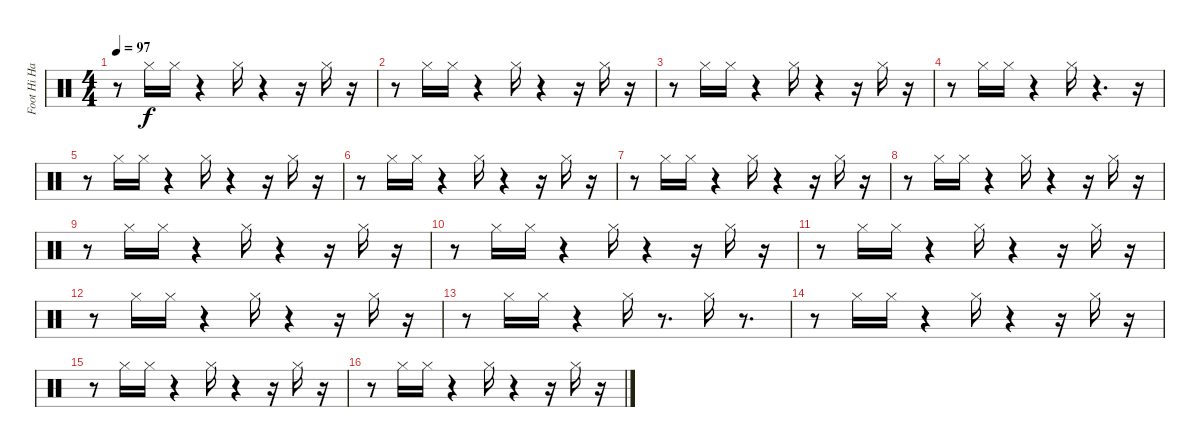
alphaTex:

\track ("Foot Hi Hat" "Foot Hi Ha") {instrument percussion}
\staff {score}
\articulation defaults
\ts (4 4)
\tempo 97
\clef neutral
\ks c
r.8{dy f} "Hi-Hat (closed)".16 "Hi-Hat (closed)".16 r.4 "Hi-Hat (closed)".16 r.4 r.16 "Hi-Hat (closed)".16 r.16 |
r.8 "Hi-Hat (closed)".16 "Hi-Hat (closed)".16 r.4 "Hi-Hat (closed)".16 r.4 r.16 "Hi-Hat (closed)".16 r.16 |
r.8 "Hi-Hat (closed)".16 "Hi-Hat (closed)".16 r.4 "Hi-Hat (closed)".16 r.4 r.16 "Hi-Hat (closed)".16 r.16 |
r.8 "Hi-Hat (closed)".16 "Hi-Hat (closed)".16 r.4 "Hi-Hat (closed)".16 r.4{d} r.16 |
r.8 "Hi-Hat (closed)".16 "Hi-Hat (closed)".16 r.4 "Hi-Hat (closed)".16 r.4 r.16 "Hi-Hat (closed)".16 r.16 |
r.8 "Hi-Hat (closed)".16 "Hi-Hat (closed)".16 r.4 "Hi-Hat (closed)".16 r.4 r.16 "Hi-Hat (closed)".16 r.16 |
r.8 "Hi-Hat (closed)".16 "Hi-Hat (closed)".16 r.4 "Hi-Hat (closed)".16 r.4 r.16 "Hi-Hat (closed)".16 r.16 |
r.8 "Hi-Hat (closed)".16 "Hi-Hat (closed)".16 r.4 "Hi-Hat (closed)".16 r.4 r.16 "Hi-Hat (closed)".16 r.16 |
r.8 "Hi-Hat (closed)".16 "Hi-Hat (closed)".16 r.4 "Hi-Hat (closed)".16 r.4 r.16 "Hi-Hat (closed)".16 r.16 |
r.8 "Hi-Hat (closed)".16 "Hi-Hat (closed)".16 r.4 "Hi-Hat (closed)".16 r.4 r.16 "Hi-Hat (closed)".16 r.16 |
r.8 "Hi-Hat (closed)".16 "Hi-Hat (closed)".16 r.4 "Hi-Hat (closed)".16 r.4 r.16 "Hi-Hat (closed)".16 r.16 |
r.8 "Hi-Hat (closed)".16 "Hi-Hat (closed)".16 r.4 "Hi-Hat (closed)".16 r.4 r.16 "Hi-Hat (closed)".16 r.16 |
r.8 "Hi-Hat (closed)".16 "Hi-Hat (closed)".16 r.4 "Hi-Hat (closed)".16 r.8{d} "Hi-Hat (closed)".16 r.8{d} |
r.8 "Hi-Hat (closed)".16 "Hi-Hat (closed)".16 r.4 "Hi-Hat (closed)".16 r.4 r.16 "Hi-Hat (closed)".16 r.16 |
r.8 "Hi-Hat (closed)".16 "Hi-Hat (closed)".16 r.4 "Hi-Hat (closed)".16 r.4 r.16 "Hi-Hat (closed)".16 r.16 |
r.8 "Hi-Hat (closed)".16 "Hi-Hat (closed)".16 r.4 "Hi-Hat (closed)".16 r.4 r.16 "Hi-Hat (closed)".16 r.16
